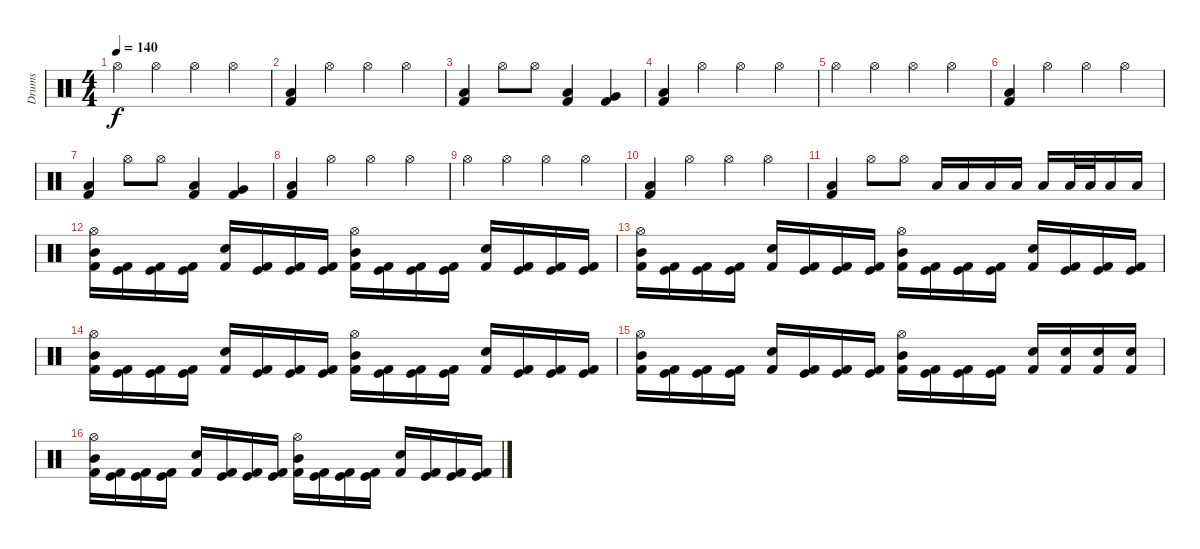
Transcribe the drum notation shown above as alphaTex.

\track ("Drums" "Drums") {instrument percussion}
\staff {score}
\articulation defaults
\ts (4 4)
\tempo 140
\clef neutral
\ks c "Hi-Hat (open)".4{dy f} "Hi-Hat (open)".4 "Hi-Hat (open)".4 "Hi-Hat (open)".4
|
("Low Floor Tom (hit)" "Kick (hit) 2").4 "Hi-Hat (open)".4 "Hi-Hat (open)".4 "Hi-Hat (open)".4 |
("Low Floor Tom (hit)" "Kick (hit) 2").4 "Hi-Hat (open)".8 "Hi-Hat (open)".8 ("Low Floor Tom (hit)" "Kick (hit) 2").4 ("Very Low Tom (hit)" "Kick (hit) 2").4 |
("Low Floor Tom (hit)" "Kick (hit) 2").4 "Hi-Hat (open)".4 "Hi-Hat (open)".4 "Hi-Hat (open)".4 |
"Hi-Hat (open)".4 "Hi-Hat (open)".4 "Hi-Hat (open)".4 "Hi-Hat (open)".4 |
("Low Floor Tom (hit)" "Kick (hit) 2").4 "Hi-Hat (open)".4 "Hi-Hat (open)".4 "Hi-Hat (open)".4 |
("Low Floor Tom (hit)" "Kick (hit) 2").4 "Hi-Hat (open)".8 "Hi-Hat (open)".8 ("Low Floor Tom (hit)" "Kick (hit) 2").4 ("Very Low Tom (hit)" "Kick (hit) 2").4 |
("Low Floor Tom (hit)" "Kick (hit) 2").4 "Hi-Hat (open)".4 "Hi-Hat (open)".4 "Hi-Hat (open)".4 |
"Hi-Hat (open)".4 "Hi-Hat (open)".4 "Hi-Hat (open)".4 "Hi-Hat (open)".4 |
("Low Floor Tom (hit)" "Kick (hit) 2").4 "Hi-Hat (open)".4 "Hi-Hat (open)".4 "Hi-Hat (open)".4 |
("Low Floor Tom (hit)" "Kick (hit) 2").4 "Hi-Hat (open)".8 "Hi-Hat (open)".8 "Low Tom (hit)".16 "Low Tom (hit)".16 "Low Tom (hit)".16 "Low Tom (hit)".16 "Low Tom (hit)".16 "Low Tom (hit)".32 "Low Tom (hit)".32 "Low Tom (hit)".16 "Low Tom (hit)".16 |
("Hi-Hat (open)" "Mid Tom (hit)" "Kick (hit) 2").16{volume 13} ("Kick (hit)" "Kick (hit) 2").16 ("Kick (hit)" "Kick (hit) 2").16 ("Kick (hit)" "Kick (hit) 2").16 ("Electric Snare (hit)" "Kick (hit) 2").16 ("Kick (hit)" "Kick (hit) 2").16 ("Kick (hit)" "Kick (hit) 2").16 ("Kick (hit)" "Kick (hit) 2").16 ("Hi-Hat (open)" "Mid Tom (hit)" "Kick (hit) 2").16 ("Kick (hit)" "Kick (hit) 2").16 ("Kick (hit)" "Kick (hit) 2").16 ("Kick (hit)" "Kick (hit) 2").16 ("Electric Snare (hit)" "Kick (hit) 2").16 ("Kick (hit)" "Kick (hit) 2").16 ("Kick (hit)" "Kick (hit) 2").16 ("Kick (hit)" "Kick (hit) 2").16 |
("Hi-Hat (open)" "Mid Tom (hit)" "Kick (hit) 2").16 ("Kick (hit)" "Kick (hit) 2").16 ("Kick (hit)" "Kick (hit) 2").16 ("Kick (hit)" "Kick (hit) 2").16 ("Electric Snare (hit)" "Kick (hit) 2").16 ("Kick (hit)" "Kick (hit) 2").16 ("Kick (hit)" "Kick (hit) 2").16 ("Kick (hit)" "Kick (hit) 2").16 ("Hi-Hat (open)" "Mid Tom (hit)" "Kick (hit) 2").16 ("Kick (hit)" "Kick (hit) 2").16 ("Kick (hit)" "Kick (hit) 2").16 ("Kick (hit)" "Kick (hit) 2").16 ("Electric Snare (hit)" "Kick (hit) 2").16 ("Kick (hit)" "Kick (hit) 2").16 ("Kick (hit)" "Kick (hit) 2").16 ("Kick (hit)" "Kick (hit) 2").16 |
("Hi-Hat (open)" "Mid Tom (hit)" "Kick (hit) 2").16 ("Kick (hit)" "Kick (hit) 2").16 ("Kick (hit)" "Kick (hit) 2").16 ("Kick (hit)" "Kick (hit) 2").16 ("Electric Snare (hit)" "Kick (hit) 2").16 ("Kick (hit)" "Kick (hit) 2").16 ("Kick (hit)" "Kick (hit) 2").16 ("Kick (hit)" "Kick (hit) 2").16 ("Hi-Hat (open)" "Mid Tom (hit)" "Kick (hit) 2").16 ("Kick (hit)" "Kick (hit) 2").16 ("Kick (hit)" "Kick (hit) 2").16 ("Kick (hit)" "Kick (hit) 2").16 ("Electric Snare (hit)" "Kick (hit) 2").16 ("Kick (hit)" "Kick (hit) 2").16 ("Kick (hit)" "Kick (hit) 2").16 ("Kick (hit)" "Kick (hit) 2").16 |
("Hi-Hat (open)" "Mid Tom (hit)" "Kick (hit) 2").16 ("Kick (hit)" "Kick (hit) 2").16 ("Kick (hit)" "Kick (hit) 2").16 ("Kick (hit)" "Kick (hit) 2").16 ("Electric Snare (hit)" "Kick (hit) 2").16 ("Kick (hit)" "Kick (hit) 2").16 ("Kick (hit)" "Kick (hit) 2").16 ("Kick (hit)" "Kick (hit) 2").16 ("Hi-Hat (open)" "Mid Tom (hit)" "Kick (hit) 2").16 ("Kick (hit)" "Kick (hit) 2").16 ("Kick (hit)" "Kick (hit) 2").16 ("Kick (hit)" "Kick (hit) 2").16 ("Electric Snare (hit)" "Kick (hit) 2").16 ("Electric Snare (hit)" "Kick (hit) 2").16 ("Electric Snare (hit)" "Kick (hit) 2").16 ("Electric Snare (hit)" "Kick (hit) 2").16 |
("Hi-Hat (open)" "Mid Tom (hit)" "Kick (hit) 2").16{volume 13} ("Kick (hit)" "Kick (hit) 2").16 ("Kick (hit)" "Kick (hit) 2").16 ("Kick (hit)" "Kick (hit) 2").16 ("Electric Snare (hit)" "Kick (hit) 2").16 ("Kick (hit)" "Kick (hit) 2").16 ("Kick (hit)" "Kick (hit) 2").16 ("Kick (hit)" "Kick (hit) 2").16 ("Hi-Hat (open)" "Mid Tom (hit)" "Kick (hit) 2").16 ("Kick (hit)" "Kick (hit) 2").16 ("Kick (hit)" "Kick (hit) 2").16 ("Kick (hit)" "Kick (hit) 2").16 ("Electric Snare (hit)" "Kick (hit) 2").16 ("Kick (hit)" "Kick (hit) 2").16 ("Kick (hit)" "Kick (hit) 2").16 ("Kick (hit)" "Kick (hit) 2").16
